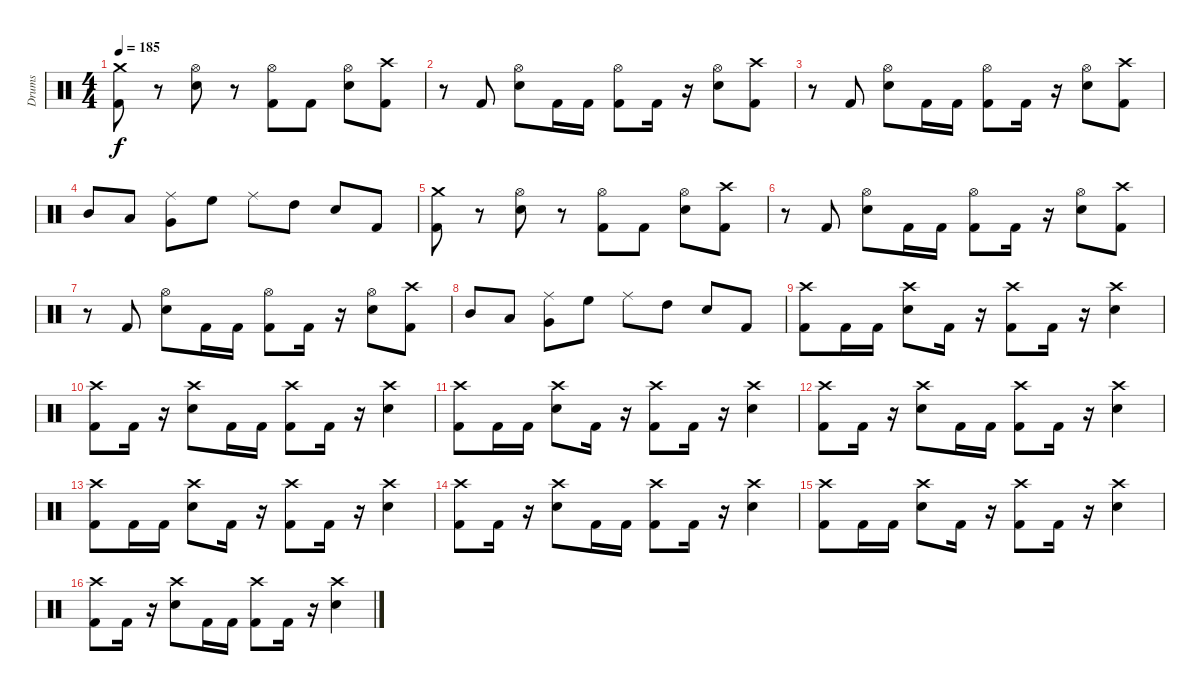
\track ("Drums" "Drums") {instrument percussion}
\staff {score}
\articulation defaults
\ts (4 4)
\tempo 185
\clef neutral
\ks c
("Kick (hit) 2" "Crash medium (hit)").8{dy f} r.8 ("Electric Snare (hit)" "Hi-Hat (open)").8 r.8 ("Kick (hit) 2" "Hi-Hat (open)").8 "Kick (hit) 2".8 ("Electric Snare (hit)" "Hi-Hat (open)").8 ("Kick (hit) 2" "Crash high (hit)").8 |
r.8 "Kick (hit) 2".8 ("Electric Snare (hit)" "Hi-Hat (open)").8 "Kick (hit) 2".16 "Kick (hit) 2".16 ("Kick (hit) 2" "Hi-Hat (open)").8 "Kick (hit) 2".16 r.16 ("Electric Snare (hit)" "Hi-Hat (open)").8 ("Kick (hit) 2" "Crash high (hit)").8 |
r.8 "Kick (hit) 2".8 ("Electric Snare (hit)" "Hi-Hat (open)").8 "Kick (hit) 2".16 "Kick (hit) 2".16 ("Kick (hit) 2" "Hi-Hat (open)").8 "Kick (hit) 2".16 r.16 ("Electric Snare (hit)" "Hi-Hat (open)").8 ("Kick (hit) 2" "Crash high (hit)").8 |
"Mid Tom (hit)".8 "Low Tom (hit)".8 ("Very Low Tom (hit)" "Ride (middle)").8 "High Floor Tom (hit)".8 "Ride (middle)".8 "High Tom (hit)".8 "Electric Snare (hit)".8 "Kick (hit) 2".8 |
("Kick (hit) 2" "Crash medium (hit)").8 r.8 ("Electric Snare (hit)" "Hi-Hat (open)").8 r.8 ("Kick (hit) 2" "Hi-Hat (open)").8 "Kick (hit) 2".8 ("Electric Snare (hit)" "Hi-Hat (open)").8 ("Kick (hit) 2" "Crash high (hit)").8 |
r.8 "Kick (hit) 2".8 ("Electric Snare (hit)" "Hi-Hat (open)").8 "Kick (hit) 2".16 "Kick (hit) 2".16 ("Kick (hit) 2" "Hi-Hat (open)").8 "Kick (hit) 2".16 r.16 ("Electric Snare (hit)" "Hi-Hat (open)").8 ("Kick (hit) 2" "Crash high (hit)").8 |
r.8 "Kick (hit) 2".8 ("Electric Snare (hit)" "Hi-Hat (open)").8 "Kick (hit) 2".16 "Kick (hit) 2".16 ("Kick (hit) 2" "Hi-Hat (open)").8 "Kick (hit) 2".16 r.16 ("Electric Snare (hit)" "Hi-Hat (open)").8 ("Kick (hit) 2" "Crash high (hit)").8 |
"Mid Tom (hit)".8 "Low Tom (hit)".8 ("Very Low Tom (hit)" "Ride (middle)").8 "High Floor Tom (hit)".8 "Ride (middle)".8 "High Tom (hit)".8 "Electric Snare (hit)".8 "Kick (hit) 2".8 |
("Kick (hit) 2" "Crash high (hit)").8 "Kick (hit) 2".16 "Kick (hit) 2".16 ("Electric Snare (hit)" "Crash high (hit)").8 "Kick (hit) 2".16 r.16 ("Kick (hit) 2" "Crash high (hit)").8 "Kick (hit) 2".16 r.16 ("Electric Snare (hit)" "Crash high (hit)").4 |
("Kick (hit) 2" "Crash high (hit)").8 "Kick (hit) 2".16 r.16 ("Electric Snare (hit)" "Crash high (hit)").8 "Kick (hit) 2".16 "Kick (hit) 2".16 ("Kick (hit) 2" "Crash high (hit)").8 "Kick (hit) 2".16 r.16 ("Electric Snare (hit)" "Crash high (hit)").4 |
("Kick (hit) 2" "Crash high (hit)").8 "Kick (hit) 2".16 "Kick (hit) 2".16 ("Electric Snare (hit)" "Crash high (hit)").8 "Kick (hit) 2".16 r.16 ("Kick (hit) 2" "Crash high (hit)").8 "Kick (hit) 2".16 r.16 ("Electric Snare (hit)" "Crash high (hit)").4 |
("Kick (hit) 2" "Crash high (hit)").8 "Kick (hit) 2".16 r.16 ("Electric Snare (hit)" "Crash high (hit)").8 "Kick (hit) 2".16 "Kick (hit) 2".16 ("Kick (hit) 2" "Crash high (hit)").8 "Kick (hit) 2".16 r.16 ("Electric Snare (hit)" "Crash high (hit)").4 |
("Kick (hit) 2" "Crash high (hit)").8 "Kick (hit) 2".16 "Kick (hit) 2".16 ("Electric Snare (hit)" "Crash high (hit)").8 "Kick (hit) 2".16 r.16 ("Kick (hit) 2" "Crash high (hit)").8 "Kick (hit) 2".16 r.16 ("Electric Snare (hit)" "Crash high (hit)").4 |
("Kick (hit) 2" "Crash high (hit)").8 "Kick (hit) 2".16 r.16 ("Electric Snare (hit)" "Crash high (hit)").8 "Kick (hit) 2".16 "Kick (hit) 2".16 ("Kick (hit) 2" "Crash high (hit)").8 "Kick (hit) 2".16 r.16 ("Electric Snare (hit)" "Crash high (hit)").4 |
("Kick (hit) 2" "Crash high (hit)").8 "Kick (hit) 2".16 "Kick (hit) 2".16 ("Electric Snare (hit)" "Crash high (hit)").8 "Kick (hit) 2".16 r.16 ("Kick (hit) 2" "Crash high (hit)").8 "Kick (hit) 2".16 r.16 ("Electric Snare (hit)" "Crash high (hit)").4 |
("Kick (hit) 2" "Crash high (hit)").8 "Kick (hit) 2".16 r.16 ("Electric Snare (hit)" "Crash high (hit)").8 "Kick (hit) 2".16 "Kick (hit) 2".16 ("Kick (hit) 2" "Crash high (hit)").8 "Kick (hit) 2".16 r.16 ("Electric Snare (hit)" "Crash high (hit)").4
